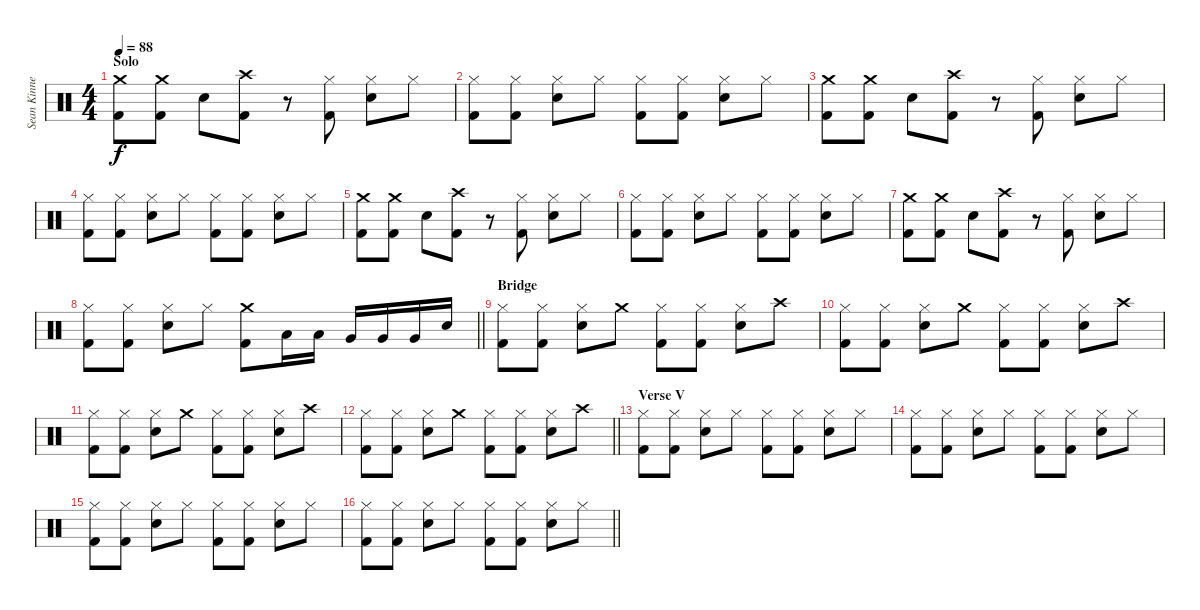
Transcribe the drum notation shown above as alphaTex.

\track ("Sean Kinney" "Sean Kinne") {instrument percussion}
\staff {score}
\articulation defaults
\ts (4 4)
\section ("" "Solo")
\tempo 88
\clef neutral
\ks c
("Crash medium (hit)" "Kick (hit) 2").8{dy f} ("Crash medium (hit)" "Kick (hit) 2").8 "Electric Snare (hit)".8 ("Crash high (hit)" "Kick (hit) 2").8 r.8 ("Hi-Hat (closed)" "Kick (hit) 2").8 ("Hi-Hat (closed)" "Electric Snare (hit)").8 "Hi-Hat (closed)".8 |
("Hi-Hat (closed)" "Kick (hit) 2").8 ("Hi-Hat (closed)" "Kick (hit) 2").8 ("Hi-Hat (closed)" "Electric Snare (hit)").8 "Hi-Hat (closed)".8 ("Hi-Hat (closed)" "Kick (hit) 2").8 ("Hi-Hat (closed)" "Kick (hit) 2").8 ("Hi-Hat (closed)" "Electric Snare (hit)").8 "Hi-Hat (closed)".8 |
("Crash medium (hit)" "Kick (hit) 2").8 ("Crash medium (hit)" "Kick (hit) 2").8 "Electric Snare (hit)".8 ("Crash high (hit)" "Kick (hit) 2").8 r.8 ("Hi-Hat (closed)" "Kick (hit) 2").8 ("Hi-Hat (closed)" "Electric Snare (hit)").8 "Hi-Hat (closed)".8 |
("Hi-Hat (closed)" "Kick (hit) 2").8 ("Hi-Hat (closed)" "Kick (hit) 2").8 ("Hi-Hat (closed)" "Electric Snare (hit)").8 "Hi-Hat (closed)".8 ("Hi-Hat (closed)" "Kick (hit) 2").8 ("Hi-Hat (closed)" "Kick (hit) 2").8 ("Hi-Hat (closed)" "Electric Snare (hit)").8 "Hi-Hat (closed)".8 |
("Crash medium (hit)" "Kick (hit) 2").8 ("Crash medium (hit)" "Kick (hit) 2").8 "Electric Snare (hit)".8 ("Crash high (hit)" "Kick (hit) 2").8 r.8 ("Hi-Hat (closed)" "Kick (hit) 2").8 ("Hi-Hat (closed)" "Electric Snare (hit)").8 "Hi-Hat (closed)".8 |
("Hi-Hat (closed)" "Kick (hit) 2").8 ("Hi-Hat (closed)" "Kick (hit) 2").8 ("Hi-Hat (closed)" "Electric Snare (hit)").8 "Hi-Hat (closed)".8 ("Hi-Hat (closed)" "Kick (hit) 2").8 ("Hi-Hat (closed)" "Kick (hit) 2").8 ("Hi-Hat (closed)" "Electric Snare (hit)").8 "Hi-Hat (closed)".8 |
("Crash medium (hit)" "Kick (hit) 2").8 ("Crash medium (hit)" "Kick (hit) 2").8 "Electric Snare (hit)".8 ("Crash high (hit)" "Kick (hit) 2").8 r.8 ("Hi-Hat (closed)" "Kick (hit) 2").8 ("Hi-Hat (closed)" "Electric Snare (hit)").8 "Hi-Hat (closed)".8 |
\barLineRight lightlight
("Hi-Hat (closed)" "Kick (hit) 2").8 ("Hi-Hat (closed)" "Kick (hit) 2").8 ("Hi-Hat (closed)" "Electric Snare (hit)").8 "Hi-Hat (closed)".8 ("Crash medium (hit)" "Kick (hit) 2").8 "Low Tom (hit)".16 "Low Tom (hit)".16 "Very Low Tom (hit)".16 "Very Low Tom (hit)".16 "Very Low Tom (hit)".16 "Electric Snare (hit)".16 |
\section ("" "Bridge")
("Hi-Hat (closed)" "Kick (hit) 2").8 ("Hi-Hat (closed)" "Kick (hit) 2").8 ("Hi-Hat (closed)" "Electric Snare (hit)").8 "Crash medium (hit)".8 ("Hi-Hat (closed)" "Kick (hit) 2").8 ("Hi-Hat (closed)" "Kick (hit) 2").8 ("Hi-Hat (closed)" "Electric Snare (hit)").8 "Crash high (hit)".8 |
("Hi-Hat (closed)" "Kick (hit) 2").8 ("Hi-Hat (closed)" "Kick (hit) 2").8 ("Hi-Hat (closed)" "Electric Snare (hit)").8 "Crash medium (hit)".8 ("Hi-Hat (closed)" "Kick (hit) 2").8 ("Hi-Hat (closed)" "Kick (hit) 2").8 ("Hi-Hat (closed)" "Electric Snare (hit)").8 "Crash high (hit)".8 |
("Hi-Hat (closed)" "Kick (hit) 2").8 ("Hi-Hat (closed)" "Kick (hit) 2").8 ("Hi-Hat (closed)" "Electric Snare (hit)").8 "Crash medium (hit)".8 ("Hi-Hat (closed)" "Kick (hit) 2").8 ("Hi-Hat (closed)" "Kick (hit) 2").8 ("Hi-Hat (closed)" "Electric Snare (hit)").8 "Crash high (hit)".8 |
\barLineRight lightlight
("Hi-Hat (closed)" "Kick (hit) 2").8 ("Hi-Hat (closed)" "Kick (hit) 2").8 ("Hi-Hat (closed)" "Electric Snare (hit)").8 "Crash medium (hit)".8 ("Hi-Hat (closed)" "Kick (hit) 2").8 ("Hi-Hat (closed)" "Kick (hit) 2").8 ("Hi-Hat (closed)" "Electric Snare (hit)").8 "Crash high (hit)".8 |
\section ("" "Verse V")
("Hi-Hat (closed)" "Kick (hit) 2").8 ("Hi-Hat (closed)" "Kick (hit) 2").8 ("Hi-Hat (closed)" "Electric Snare (hit)").8 "Hi-Hat (closed)".8 ("Hi-Hat (closed)" "Kick (hit) 2").8 ("Hi-Hat (closed)" "Kick (hit) 2").8 ("Hi-Hat (closed)" "Electric Snare (hit)").8 "Hi-Hat (closed)".8 |
("Hi-Hat (closed)" "Kick (hit) 2").8 ("Hi-Hat (closed)" "Kick (hit) 2").8 ("Hi-Hat (closed)" "Electric Snare (hit)").8 "Hi-Hat (closed)".8 ("Hi-Hat (closed)" "Kick (hit) 2").8 ("Hi-Hat (closed)" "Kick (hit) 2").8 ("Hi-Hat (closed)" "Electric Snare (hit)").8 "Hi-Hat (closed)".8 |
("Hi-Hat (closed)" "Kick (hit) 2").8 ("Hi-Hat (closed)" "Kick (hit) 2").8 ("Hi-Hat (closed)" "Electric Snare (hit)").8 "Hi-Hat (closed)".8 ("Hi-Hat (closed)" "Kick (hit) 2").8 ("Hi-Hat (closed)" "Kick (hit) 2").8 ("Hi-Hat (closed)" "Electric Snare (hit)").8 "Hi-Hat (closed)".8 |
\barLineRight lightlight
("Hi-Hat (closed)" "Kick (hit) 2").8 ("Hi-Hat (closed)" "Kick (hit) 2").8 ("Hi-Hat (closed)" "Electric Snare (hit)").8 "Hi-Hat (closed)".8 ("Hi-Hat (closed)" "Kick (hit) 2").8 ("Hi-Hat (closed)" "Kick (hit) 2").8 ("Hi-Hat (closed)" "Electric Snare (hit)").8 "Hi-Hat (closed)".8
